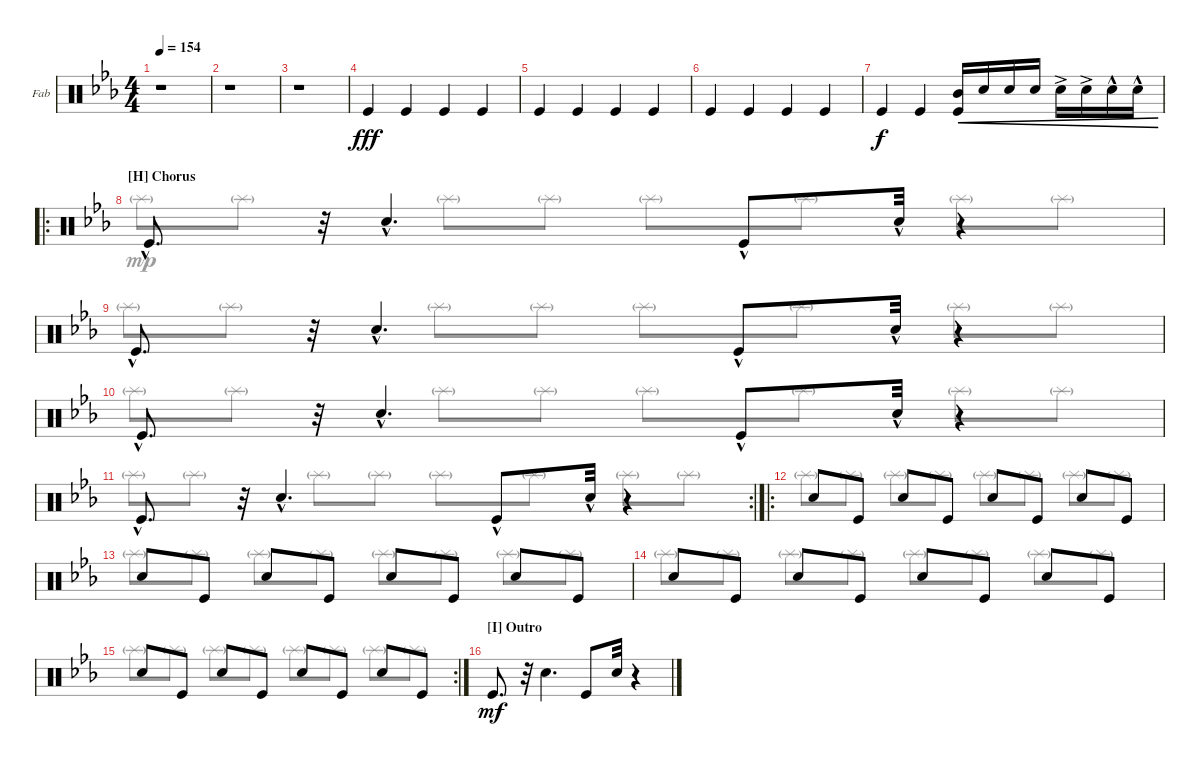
\defaultSystemsLayout 4
\bracketExtendMode groupsimilarinstruments
\firstSystemTrackNameOrientation horizontal
\otherSystemsTrackNameOrientation horizontal
\track ("Drums" "Fab") {instrument percussion}
\staff {score}
\articulation defaults
\voice
\ts (4 4)
\tempo 154
\clef neutral
\ks eb
r.1{dy mf} |
r.1 |
r.1 |
\scale
0.504613 "Kick (hit)".4{dy fff} "Kick (hit)".4 "Kick (hit)".4 "Kick (hit)".4 |
\scale
0.495021 "Kick (hit)".4 "Kick (hit)".4 "Kick (hit)".4 "Kick (hit)".4 |
\scale
0.503582 "Kick (hit)".4 "Kick (hit)".4 "Kick (hit)".4 "Kick (hit)".4 |
\scale
0.496466 "Kick (hit)".4{dy f} "Kick (hit)".4 ("Kick (hit)" "Mid Tom (hit)").16{cre} "Snare (hit) 2".16{cre} "Snare (hit) 2".16{cre} "Snare (hit) 2".16{cre} "Snare (hit) 2"{ac}.16{cre} "Snare (hit) 2"{ac}.16{cre} "Snare (hit) 2"{hac}.16{cre} "Snare (hit) 2"{hac}.16{cre} |
\ro
\section ("H" "Chorus")
"Kick (hit)"{hac}.8{d} r.32 "Snare (hit) 2"{hac}.4{d} "Kick (hit)"{hac}.8 "Snare (hit) 2"{hac}.32 r.4 |
"Kick (hit)"{hac}.8{d} r.32 "Snare (hit) 2"{hac}.4{d} "Kick (hit)"{hac}.8 "Snare (hit) 2"{hac}.32 r.4 |
\scale
0.520193 "Kick (hit)"{hac}.8{d} r.32 "Snare (hit) 2"{hac}.4{d} "Kick (hit)"{hac}.8 "Snare (hit) 2"{hac}.32 r.4 |
\rc 2
\scale
0.479828 "Kick (hit)"{hac}.8{d} r.32 "Snare (hit) 2"{hac}.4{d} "Kick (hit)"{hac}.8 "Snare (hit) 2"{hac}.32 r.4 |
\ro
\scale
0.52278 "Snare (hit) 2".8 "Kick (hit)".8 "Snare (hit) 2".8 "Kick (hit)".8 "Snare (hit) 2".8 "Kick (hit)".8 "Snare (hit) 2".8 "Kick (hit)".8 |
\scale
0.47709 "Snare (hit) 2".8 "Kick (hit)".8 "Snare (hit) 2".8 "Kick (hit)".8 "Snare (hit) 2".8 "Kick (hit)".8 "Snare (hit) 2".8 "Kick (hit)".8 |
\scale
0.52228 "Snare (hit) 2".8 "Kick (hit)".8 "Snare (hit) 2".8 "Kick (hit)".8 "Snare (hit) 2".8 "Kick (hit)".8 "Snare (hit) 2".8 "Kick (hit)".8 |
\rc 2
\scale
0.477702 "Snare (hit) 2".8 "Kick (hit)".8 "Snare (hit) 2".8 "Kick (hit)".8 "Snare (hit) 2".8 "Kick (hit)".8 "Snare (hit) 2".8 "Kick (hit)".8 |
\section ("I" "Outro")
\scale
0.548887 "Kick (hit)".8{d dy mf} r.32 "Snare (hit) 2".4{d} "Kick (hit)".8 "Snare (hit) 2".32 r.4
\voice
\clef neutral
\ottava regular
\simile none
\ks eb
|
|
|
\scale
0.504613 |
\scale
0.495021 |
\scale
0.503582 |
\scale
0.496466 |
"Splash (hit)"{g}.8{dy mp} "Splash (hit)"{g}.8 "Splash (hit)"{g}.8 "Splash (hit)"{g}.8 "Splash (hit)"{g}.8 "Splash (hit)"{g}.8 "Splash (hit)"{g}.8 "Splash (hit)"{g}.8 |
"Splash (hit)"{g}.8 "Splash (hit)"{g}.8 "Splash (hit)"{g}.8 "Splash (hit)"{g}.8 "Splash (hit)"{g}.8 "Splash (hit)"{g}.8 "Splash (hit)"{g}.8 "Splash (hit)"{g}.8 |
\scale
0.520193 "Splash (hit)"{g}.8 "Splash (hit)"{g}.8 "Splash (hit)"{g}.8 "Splash (hit)"{g}.8 "Splash (hit)"{g}.8 "Splash (hit)"{g}.8 "Splash (hit)"{g}.8 "Splash (hit)"{g}.8 |
\scale
0.479828 "Splash (hit)"{g}.8 "Splash (hit)"{g}.8 "Splash (hit)"{g}.8 "Splash (hit)"{g}.8 "Splash (hit)"{g}.8 "Splash (hit)"{g}.8 "Splash (hit)"{g}.8 "Splash (hit)"{g}.8 |
\scale
0.52278 "Splash (hit)"{g}.8 "Splash (hit)"{g}.8 "Splash (hit)"{g}.8 "Splash (hit)"{g}.8 "Splash (hit)"{g}.8 "Splash (hit)"{g}.8 "Splash (hit)"{g}.8 "Splash (hit)"{g}.8 |
\scale
0.47709 "Splash (hit)"{g}.8 "Splash (hit)"{g}.8 "Splash (hit)"{g}.8 "Splash (hit)"{g}.8 "Splash (hit)"{g}.8 "Splash (hit)"{g}.8 "Splash (hit)"{g}.8 "Splash (hit)"{g}.8 |
\scale
0.52228 "Splash (hit)"{g}.8 "Splash (hit)"{g}.8 "Splash (hit)"{g}.8 "Splash (hit)"{g}.8 "Splash (hit)"{g}.8 "Splash (hit)"{g}.8 "Splash (hit)"{g}.8 "Splash (hit)"{g}.8 |
\scale
0.477702 "Splash (hit)"{g}.8 "Splash (hit)"{g}.8 "Splash (hit)"{g}.8 "Splash (hit)"{g}.8 "Splash (hit)"{g}.8 "Splash (hit)"{g}.8 "Splash (hit)"{g}.8 "Splash (hit)"{g}.8 |
\scale
0.548887
